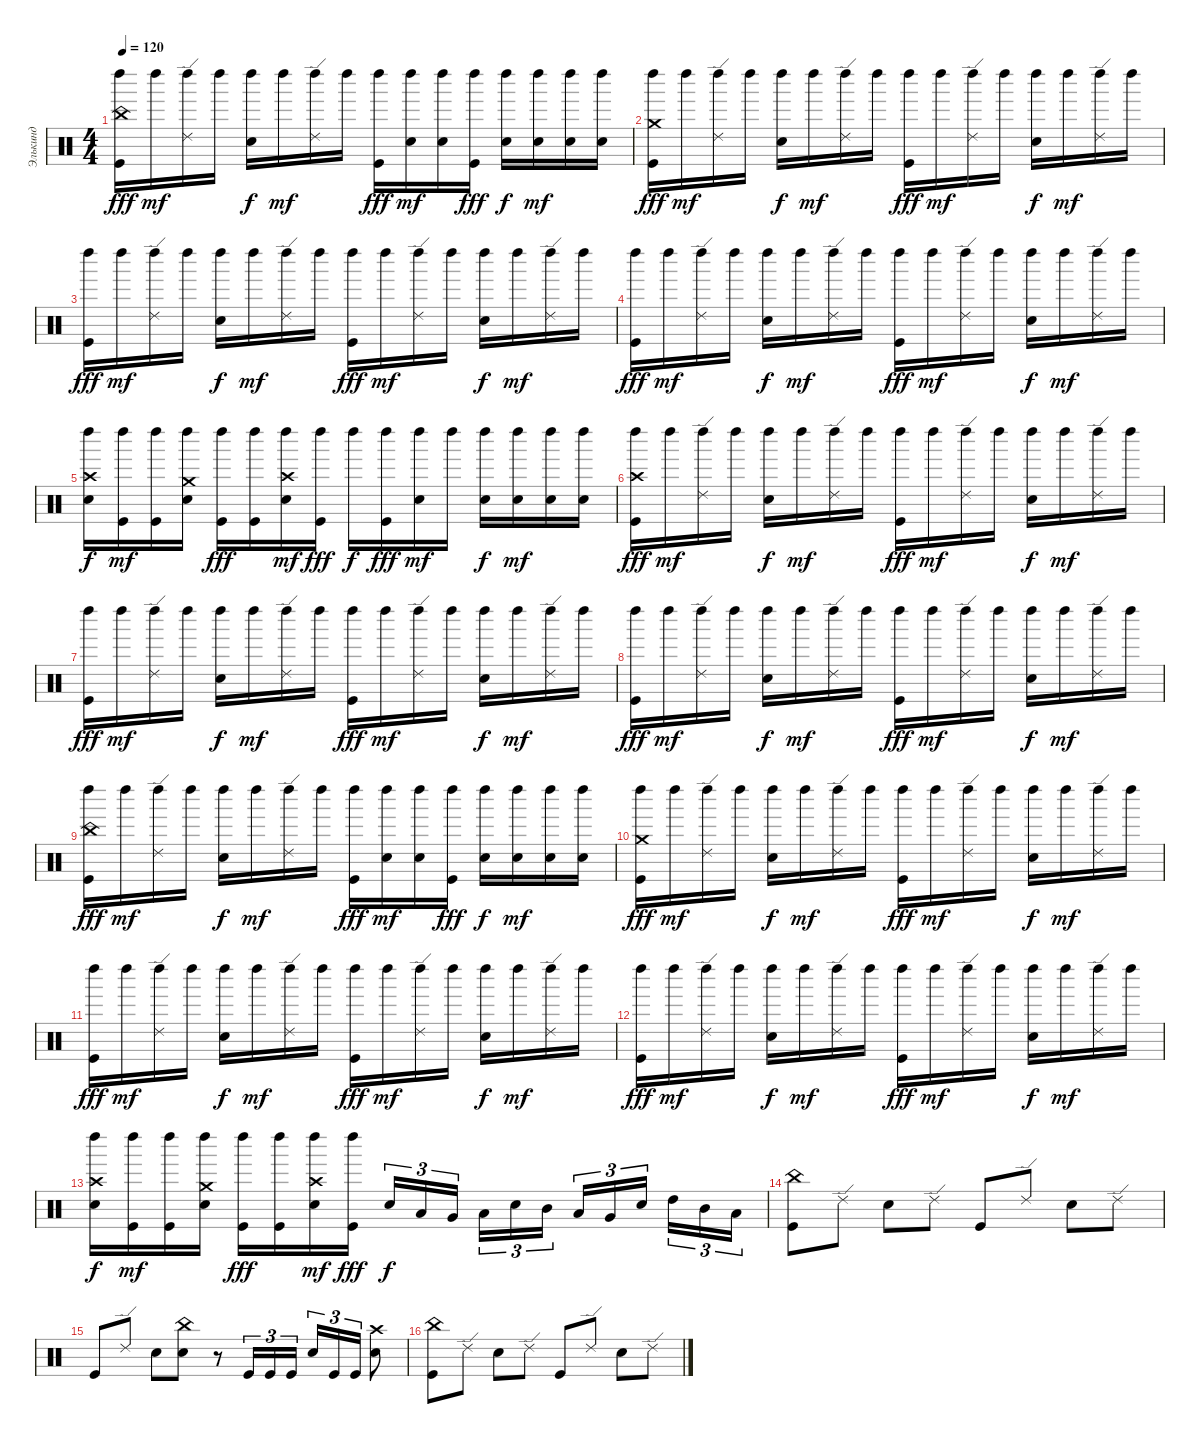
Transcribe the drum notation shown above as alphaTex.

\track ("Элькинд" "Элькинд") {instrument percussion}
\staff {score}
\articulation defaults
\ts (4 4)
\tempo 120
\clef neutral
\ks c
("Kick (hit)" "China (hit)" "Left Maraca (hit)").16{dy fff} "Left Maraca (hit)".16{dy mf} ("Left Maraca (hit)" "Ride (edge) 2").16 "Left Maraca (hit)".16 ("Electric Snare (hit)" "Left Maraca (hit)").16{dy f} "Left Maraca (hit)".16{dy mf} ("Ride (edge) 2" "Left Maraca (hit)").16 "Left Maraca (hit)".16 ("Left Maraca (hit)" "Kick (hit)").16{dy fff} ("Electric Snare (hit)" "Left Maraca (hit)").16{dy mf} ("Left Maraca (hit)" "Electric Snare (hit)").16 ("Left Maraca (hit)" "Kick (hit)").16{dy fff} ("Electric Snare (hit)" "Left Maraca (hit)").16{dy f} ("Left Maraca (hit)" "Electric Snare (hit)").16{dy mf} ("Left Maraca (hit)" "Electric Snare (hit)").16 ("Electric Snare (hit)" "Left Maraca (hit)").16 |
("Left Maraca (hit)" "Crash medium (hit)" "Kick (hit)").16{dy fff} "Left Maraca (hit)".16{dy mf} ("Left Maraca (hit)" "Ride (edge) 2").16 "Left Maraca (hit)".16 ("Left Maraca (hit)" "Electric Snare (hit)").16{dy f} "Left Maraca (hit)".16{dy mf} ("Left Maraca (hit)" "Ride (edge) 2").16 "Left Maraca (hit)".16 ("Left Maraca (hit)" "Kick (hit)").16{dy fff} "Left Maraca (hit)".16{dy mf} ("Left Maraca (hit)" "Ride (edge) 2").16 "Left Maraca (hit)".16 ("Left Maraca (hit)" "Electric Snare (hit)").16{dy f} "Left Maraca (hit)".16{dy mf} ("Left Maraca (hit)" "Ride (edge) 2").16 "Left Maraca (hit)".16 |
("Left Maraca (hit)" "Kick (hit)").16{dy fff} "Left Maraca (hit)".16{dy mf} ("Left Maraca (hit)" "Ride (edge) 2").16 "Left Maraca (hit)".16 ("Left Maraca (hit)" "Electric Snare (hit)").16{dy f} "Left Maraca (hit)".16{dy mf} ("Left Maraca (hit)" "Ride (edge) 2").16 "Left Maraca (hit)".16 ("Left Maraca (hit)" "Kick (hit)").16{dy fff} "Left Maraca (hit)".16{dy mf} ("Left Maraca (hit)" "Ride (edge) 2").16 "Left Maraca (hit)".16 ("Left Maraca (hit)" "Electric Snare (hit)").16{dy f} "Left Maraca (hit)".16{dy mf} ("Left Maraca (hit)" "Ride (edge) 2").16 "Left Maraca (hit)".16 |
("Left Maraca (hit)" "Kick (hit)").16{dy fff} "Left Maraca (hit)".16{dy mf} ("Left Maraca (hit)" "Ride (edge) 2").16 "Left Maraca (hit)".16 ("Left Maraca (hit)" "Electric Snare (hit)").16{dy f} "Left Maraca (hit)".16{dy mf} ("Left Maraca (hit)" "Ride (edge) 2").16 "Left Maraca (hit)".16 ("Left Maraca (hit)" "Kick (hit)").16{dy fff} "Left Maraca (hit)".16{dy mf} ("Left Maraca (hit)" "Ride (edge) 2").16 "Left Maraca (hit)".16 ("Left Maraca (hit)" "Electric Snare (hit)").16{dy f} "Left Maraca (hit)".16{dy mf} ("Left Maraca (hit)" "Ride (edge) 2").16 "Left Maraca (hit)".16 |
("Crash high (hit)" "Electric Snare (hit)" "Left Maraca (hit)").16{dy f} ("Kick (hit)" "Left Maraca (hit)").16{dy mf} ("Kick (hit)" "Left Maraca (hit)").16 ("Left Maraca (hit)" "Crash medium (hit)" "Electric Snare (hit)").16 ("Kick (hit)" "Left Maraca (hit)").16{dy fff} ("Left Maraca (hit)" "Kick (hit)").16 ("Left Maraca (hit)" "Crash high (hit)" "Electric Snare (hit)").16{dy mf} ("Left Maraca (hit)" "Kick (hit)").16{dy fff} "Left Maraca (hit)".16{dy f} ("Left Maraca (hit)" "Kick (hit)").16{dy fff} ("Electric Snare (hit)" "Left Maraca (hit)").16{dy mf} "Left Maraca (hit)".16 ("Left Maraca (hit)" "Electric Snare (hit)").16{dy f} ("Electric Snare (hit)" "Left Maraca (hit)").16{dy mf} ("Electric Snare (hit)" "Left Maraca (hit)").16 ("Electric Snare (hit)" "Left Maraca (hit)").16 |
("Left Maraca (hit)" "Crash high (hit)" "Kick (hit)").16{dy fff} "Left Maraca (hit)".16{dy mf} ("Left Maraca (hit)" "Ride (edge) 2").16 "Left Maraca (hit)".16 ("Left Maraca (hit)" "Electric Snare (hit)").16{dy f} "Left Maraca (hit)".16{dy mf} ("Left Maraca (hit)" "Ride (edge) 2").16 "Left Maraca (hit)".16 ("Left Maraca (hit)" "Kick (hit)").16{dy fff} "Left Maraca (hit)".16{dy mf} ("Left Maraca (hit)" "Ride (edge) 2").16 "Left Maraca (hit)".16 ("Left Maraca (hit)" "Electric Snare (hit)").16{dy f} "Left Maraca (hit)".16{dy mf} ("Left Maraca (hit)" "Ride (edge) 2").16 "Left Maraca (hit)".16 |
("Left Maraca (hit)" "Kick (hit)").16{dy fff} "Left Maraca (hit)".16{dy mf} ("Left Maraca (hit)" "Ride (edge) 2").16 "Left Maraca (hit)".16 ("Left Maraca (hit)" "Electric Snare (hit)").16{dy f} "Left Maraca (hit)".16{dy mf} ("Left Maraca (hit)" "Ride (edge) 2").16 "Left Maraca (hit)".16 ("Left Maraca (hit)" "Kick (hit)").16{dy fff} "Left Maraca (hit)".16{dy mf} ("Left Maraca (hit)" "Ride (edge) 2").16 "Left Maraca (hit)".16 ("Left Maraca (hit)" "Electric Snare (hit)").16{dy f} "Left Maraca (hit)".16{dy mf} ("Left Maraca (hit)" "Ride (edge) 2").16 "Left Maraca (hit)".16 |
("Left Maraca (hit)" "Kick (hit)").16{dy fff} "Left Maraca (hit)".16{dy mf} ("Left Maraca (hit)" "Ride (edge) 2").16 "Left Maraca (hit)".16 ("Left Maraca (hit)" "Electric Snare (hit)").16{dy f} "Left Maraca (hit)".16{dy mf} ("Left Maraca (hit)" "Ride (edge) 2").16 "Left Maraca (hit)".16 ("Left Maraca (hit)" "Kick (hit)").16{dy fff} "Left Maraca (hit)".16{dy mf} ("Left Maraca (hit)" "Ride (edge) 2").16 "Left Maraca (hit)".16 ("Left Maraca (hit)" "Electric Snare (hit)").16{dy f} "Left Maraca (hit)".16{dy mf} ("Left Maraca (hit)" "Ride (edge) 2").16 "Left Maraca (hit)".16 |
("Kick (hit)" "China (hit)" "Left Maraca (hit)").16{dy fff} "Left Maraca (hit)".16{dy mf} ("Left Maraca (hit)" "Ride (edge) 2").16 "Left Maraca (hit)".16 ("Electric Snare (hit)" "Left Maraca (hit)").16{dy f} "Left Maraca (hit)".16{dy mf} ("Ride (edge) 2" "Left Maraca (hit)").16 "Left Maraca (hit)".16 ("Left Maraca (hit)" "Kick (hit)").16{dy fff} ("Electric Snare (hit)" "Left Maraca (hit)").16{dy mf} ("Left Maraca (hit)" "Electric Snare (hit)").16 ("Left Maraca (hit)" "Kick (hit)").16{dy fff} ("Electric Snare (hit)" "Left Maraca (hit)").16{dy f} ("Left Maraca (hit)" "Electric Snare (hit)").16{dy mf} ("Left Maraca (hit)" "Electric Snare (hit)").16 ("Electric Snare (hit)" "Left Maraca (hit)").16 |
("Left Maraca (hit)" "Crash medium (hit)" "Kick (hit)").16{dy fff} "Left Maraca (hit)".16{dy mf} ("Left Maraca (hit)" "Ride (edge) 2").16 "Left Maraca (hit)".16 ("Left Maraca (hit)" "Electric Snare (hit)").16{dy f} "Left Maraca (hit)".16{dy mf} ("Left Maraca (hit)" "Ride (edge) 2").16 "Left Maraca (hit)".16 ("Left Maraca (hit)" "Kick (hit)").16{dy fff} "Left Maraca (hit)".16{dy mf} ("Left Maraca (hit)" "Ride (edge) 2").16 "Left Maraca (hit)".16 ("Left Maraca (hit)" "Electric Snare (hit)").16{dy f} "Left Maraca (hit)".16{dy mf} ("Left Maraca (hit)" "Ride (edge) 2").16 "Left Maraca (hit)".16 |
("Left Maraca (hit)" "Kick (hit)").16{dy fff} "Left Maraca (hit)".16{dy mf} ("Left Maraca (hit)" "Ride (edge) 2").16 "Left Maraca (hit)".16 ("Left Maraca (hit)" "Electric Snare (hit)").16{dy f} "Left Maraca (hit)".16{dy mf} ("Left Maraca (hit)" "Ride (edge) 2").16 "Left Maraca (hit)".16 ("Left Maraca (hit)" "Kick (hit)").16{dy fff} "Left Maraca (hit)".16{dy mf} ("Left Maraca (hit)" "Ride (edge) 2").16 "Left Maraca (hit)".16 ("Left Maraca (hit)" "Electric Snare (hit)").16{dy f} "Left Maraca (hit)".16{dy mf} ("Left Maraca (hit)" "Ride (edge) 2").16 "Left Maraca (hit)".16 |
("Left Maraca (hit)" "Kick (hit)").16{dy fff} "Left Maraca (hit)".16{dy mf} ("Left Maraca (hit)" "Ride (edge) 2").16 "Left Maraca (hit)".16 ("Left Maraca (hit)" "Electric Snare (hit)").16{dy f} "Left Maraca (hit)".16{dy mf} ("Left Maraca (hit)" "Ride (edge) 2").16 "Left Maraca (hit)".16 ("Left Maraca (hit)" "Kick (hit)").16{dy fff} "Left Maraca (hit)".16{dy mf} ("Left Maraca (hit)" "Ride (edge) 2").16 "Left Maraca (hit)".16 ("Left Maraca (hit)" "Electric Snare (hit)").16{dy f} "Left Maraca (hit)".16{dy mf} ("Left Maraca (hit)" "Ride (edge) 2").16 "Left Maraca (hit)".16 |
("Crash high (hit)" "Electric Snare (hit)" "Left Maraca (hit)").16{dy f} ("Kick (hit)" "Left Maraca (hit)").16{dy mf} ("Kick (hit)" "Left Maraca (hit)").16 ("Left Maraca (hit)" "Crash medium (hit)" "Electric Snare (hit)").16 ("Kick (hit)" "Left Maraca (hit)").16{dy fff} ("Left Maraca (hit)" "Kick (hit)").16 ("Left Maraca (hit)" "Crash high (hit)" "Electric Snare (hit)").16{dy mf} ("Left Maraca (hit)" "Kick (hit)").16{dy fff} "Electric Snare (hit)".16{tu (3 2) dy f} "Low Tom (hit)".16{tu (3 2)} "Very Low Tom (hit)".16{tu (3 2) beam splitsecondary} "Low Floor Tom (hit)".16{tu (3 2)} "Electric Snare (hit)".16{tu (3 2)} "Mid Tom (hit)".16{tu (3 2)} "Low Tom (hit)".16{tu (3 2)} "Very Low Tom (hit)".16{tu (3 2)} "Electric Snare (hit)".16{tu (3 2) beam splitsecondary} "High Tom (hit)".16{tu (3 2)} "Mid Tom (hit)".16{tu (3 2)} "Low Tom (hit)".16{tu (3 2)} |
("China (hit)" "Kick (hit)").8 "Ride (edge) 2".8 "Electric Snare (hit)".8 "Ride (edge) 2".8 "Kick (hit)".8 "Ride (edge) 2".8 "Electric Snare (hit)".8 "Ride (edge) 2".8 |
"Kick (hit)".8 "Ride (edge) 2".8 "Electric Snare (hit)".8 ("China (hit)" "Electric Snare (hit)").8 r.8 "Kick (hit)".16{tu (3 2)} "Kick (hit)".16{tu (3 2)} "Kick (hit)".16{tu (3 2)} "Electric Snare (hit)".16{tu (3 2)} "Kick (hit)".16{tu (3 2)} "Kick (hit)".16{tu (3 2)} ("Crash high (hit)" "Electric Snare (hit)").8 |
("China (hit)" "Kick (hit)").8 "Ride (edge) 2".8 "Electric Snare (hit)".8 "Ride (edge) 2".8 "Kick (hit)".8 "Ride (edge) 2".8 "Electric Snare (hit)".8 "Ride (edge) 2".8
